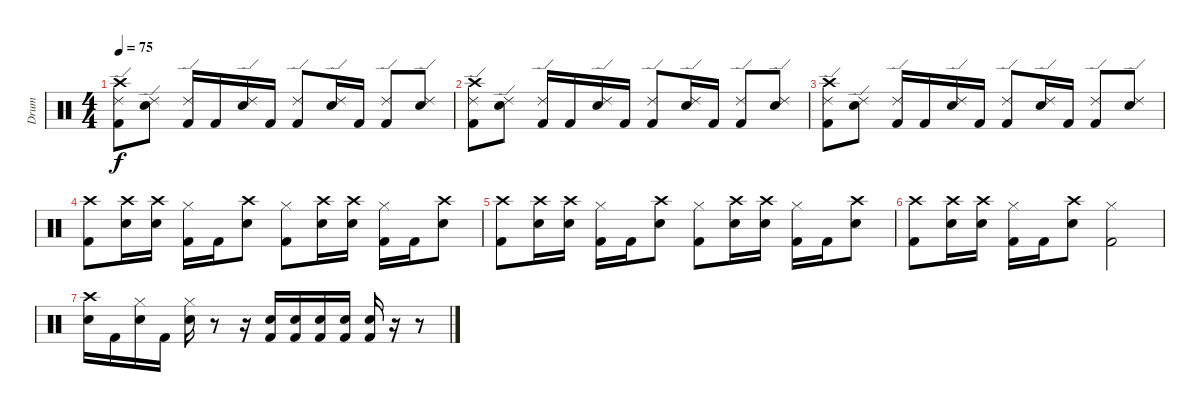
\track ("Drum" "Drum") {instrument percussion}
\staff {score}
\articulation defaults
\ts (4 4)
\tempo 75
\clef neutral
\ks c
("Ride (edge) 2" "Kick (hit) 2" "Crash high (hit)").8{dy f} ("Ride (edge) 2" "Electric Snare (hit)").8 ("Ride (edge) 2" "Kick (hit) 2").16 "Kick (hit) 2".16 ("Ride (edge) 2" "Electric Snare (hit)").16 "Kick (hit) 2".16 ("Ride (edge) 2" "Kick (hit) 2").8 ("Ride (edge) 2" "Electric Snare (hit)").16 "Kick (hit) 2".16 ("Ride (edge) 2" "Kick (hit) 2").8 ("Ride (edge) 2" "Electric Snare (hit)").8 |
("Ride (edge) 2" "Kick (hit) 2" "Crash high (hit)").8 ("Ride (edge) 2" "Electric Snare (hit)").8 ("Ride (edge) 2" "Kick (hit) 2").16 "Kick (hit) 2".16 ("Ride (edge) 2" "Electric Snare (hit)").16 "Kick (hit) 2".16 ("Ride (edge) 2" "Kick (hit) 2").8 ("Ride (edge) 2" "Electric Snare (hit)").16 "Kick (hit) 2".16 ("Ride (edge) 2" "Kick (hit) 2").8 ("Ride (edge) 2" "Electric Snare (hit)").8 |
("Ride (edge) 2" "Kick (hit) 2" "Crash high (hit)").8 ("Ride (edge) 2" "Electric Snare (hit)").8 ("Ride (edge) 2" "Kick (hit) 2").16 "Kick (hit) 2".16 ("Ride (edge) 2" "Electric Snare (hit)").16 "Kick (hit) 2".16 ("Ride (edge) 2" "Kick (hit) 2").8 ("Ride (edge) 2" "Electric Snare (hit)").16 "Kick (hit) 2".16 ("Ride (edge) 2" "Kick (hit) 2").8 ("Ride (edge) 2" "Electric Snare (hit)").8 |
("Crash high (hit)" "Kick (hit) 2").8 ("Crash high (hit)" "Electric Snare (hit)").16 ("Crash high (hit)" "Electric Snare (hit)").16 ("Hi-Hat (closed)" "Kick (hit) 2").16 "Kick (hit) 2".16 ("Crash high (hit)" "Electric Snare (hit)").8 ("Hi-Hat (closed)" "Kick (hit) 2").8 ("Crash high (hit)" "Electric Snare (hit)").16 ("Crash high (hit)" "Electric Snare (hit)").16 ("Hi-Hat (closed)" "Kick (hit) 2").16 "Kick (hit) 2".16 ("Crash high (hit)" "Electric Snare (hit)").8 |
("Crash high (hit)" "Kick (hit) 2").8 ("Crash high (hit)" "Electric Snare (hit)").16 ("Crash high (hit)" "Electric Snare (hit)").16 ("Hi-Hat (closed)" "Kick (hit) 2").16 "Kick (hit) 2".16 ("Crash high (hit)" "Electric Snare (hit)").8 ("Hi-Hat (closed)" "Kick (hit) 2").8 ("Crash high (hit)" "Electric Snare (hit)").16 ("Crash high (hit)" "Electric Snare (hit)").16 ("Hi-Hat (closed)" "Kick (hit) 2").16 "Kick (hit) 2".16 ("Crash high (hit)" "Electric Snare (hit)").8 |
("Crash high (hit)" "Kick (hit) 2").8 ("Crash high (hit)" "Electric Snare (hit)").16 ("Crash high (hit)" "Electric Snare (hit)").16 ("Hi-Hat (closed)" "Kick (hit) 2").16 "Kick (hit) 2".16 ("Crash high (hit)" "Electric Snare (hit)").8 ("Hi-Hat (closed)" "Kick (hit) 2").2 |
("Crash high (hit)" "Electric Snare (hit)").16 "Kick (hit) 2".16 ("Hi-Hat (closed)" "Electric Snare (hit)").16 "Kick (hit) 2".16 ("Hi-Hat (closed)" "Electric Snare (hit)").16 r.8 r.16 ("Electric Snare (hit)" "Kick (hit) 2").16 ("Electric Snare (hit)" "Kick (hit) 2").16 ("Electric Snare (hit)" "Kick (hit) 2").16 ("Electric Snare (hit)" "Kick (hit) 2").16 ("Electric Snare (hit)" "Kick (hit) 2").16 r.16 r.8
